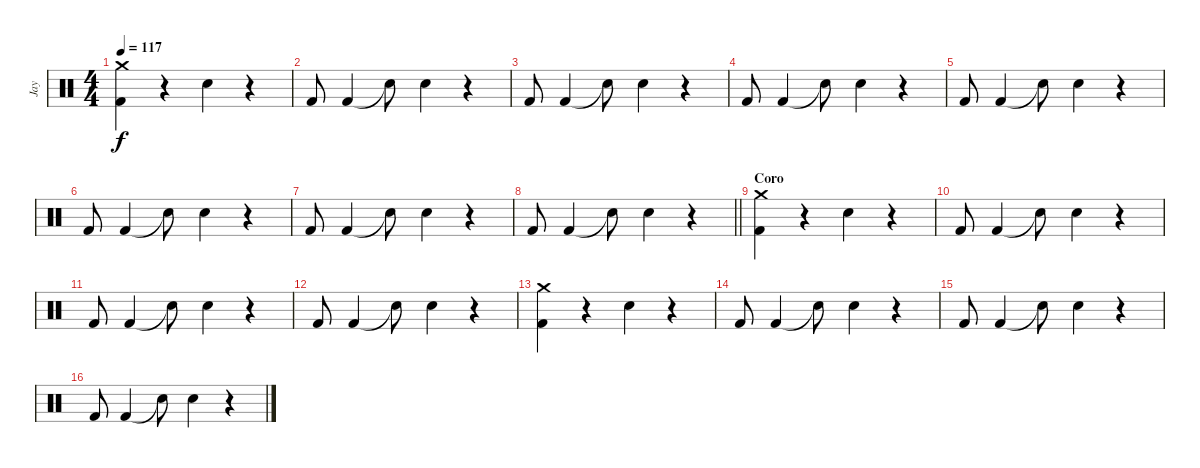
\track ("Jay" "Jay") {instrument percussion}
\staff {score}
\articulation defaults
\ts (4 4)
\tempo 117
\clef neutral
\ks c
("Crash medium (hit)" "Kick (hit) 2").4{dy f} r.4 "Snare (hit) 2".4 r.4 |
"Kick (hit) 2".8 "Kick (hit) 2".4 "Snare (hit) 2"{t}.8 "Snare (hit) 2".4 r.4 |
"Kick (hit) 2".8 "Kick (hit) 2".4 "Snare (hit) 2"{t}.8 "Snare (hit) 2".4 r.4 |
"Kick (hit) 2".8 "Kick (hit) 2".4 "Snare (hit) 2"{t}.8 "Snare (hit) 2".4 r.4 |
"Kick (hit) 2".8 "Kick (hit) 2".4 "Snare (hit) 2"{t}.8 "Snare (hit) 2".4 r.4 |
"Kick (hit) 2".8 "Kick (hit) 2".4 "Snare (hit) 2"{t}.8 "Snare (hit) 2".4 r.4 |
"Kick (hit) 2".8 "Kick (hit) 2".4 "Snare (hit) 2"{t}.8 "Snare (hit) 2".4 r.4 |
\barLineRight lightlight "Kick (hit) 2".8 "Kick (hit) 2".4 "Snare (hit) 2"{t}.8 "Snare (hit) 2".4
r.4 |
\section ("" "Coro")
("Crash medium (hit)" "Kick (hit) 2").4 r.4 "Snare (hit) 2".4 r.4 |
"Kick (hit) 2".8 "Kick (hit) 2".4 "Snare (hit) 2"{t}.8 "Snare (hit) 2".4 r.4 |
"Kick (hit) 2".8 "Kick (hit) 2".4 "Snare (hit) 2"{t}.8 "Snare (hit) 2".4 r.4 |
"Kick (hit) 2".8 "Kick (hit) 2".4 "Snare (hit) 2"{t}.8 "Snare (hit) 2".4 r.4 |
("Crash medium (hit)" "Kick (hit) 2").4 r.4 "Snare (hit) 2".4 r.4 |
"Kick (hit) 2".8 "Kick (hit) 2".4 "Snare (hit) 2"{t}.8 "Snare (hit) 2".4 r.4 |
"Kick (hit) 2".8 "Kick (hit) 2".4 "Snare (hit) 2"{t}.8 "Snare (hit) 2".4 r.4 |
"Kick (hit) 2".8 "Kick (hit) 2".4 "Snare (hit) 2"{t}.8 "Snare (hit) 2".4 r.4
